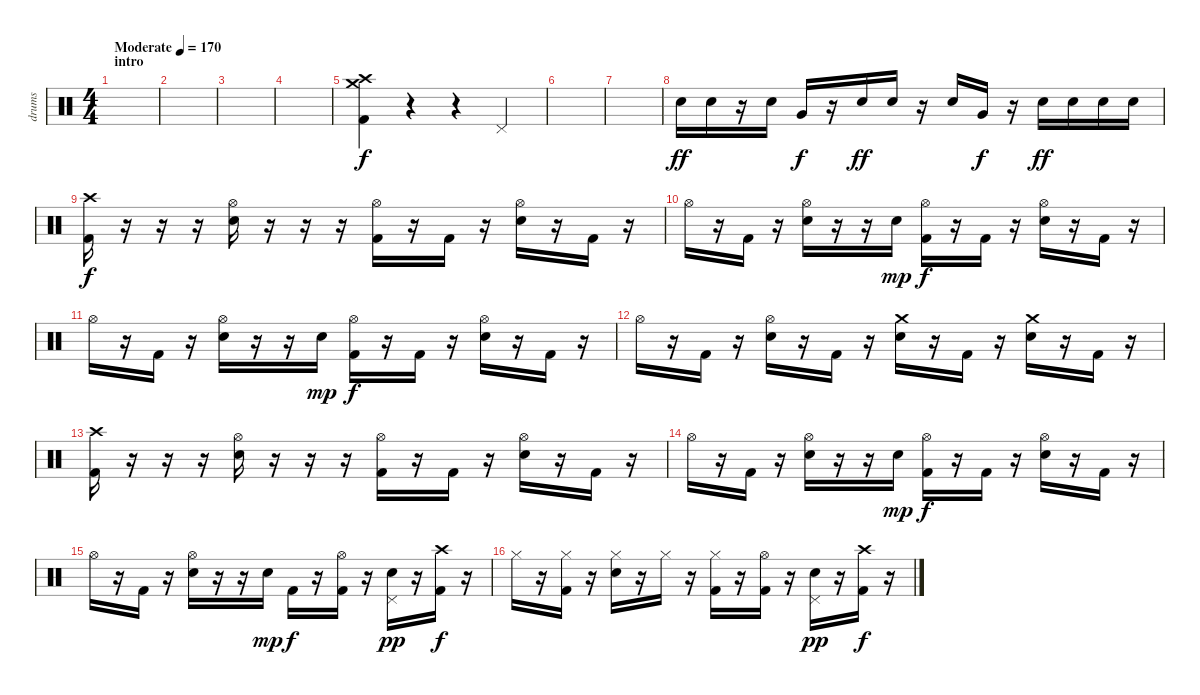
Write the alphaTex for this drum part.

\track ("drums" "drums") {instrument percussion}
\staff {score}
\articulation defaults
\ts (4 4)
\section ("" "intro")
\tempo (170 "Moderate")
\clef neutral
\ks c
|
|
|
|
("Crash high (hit)" "Crash medium (hit)" "Kick (hit) 2").4 r.4 r.4 "Pedal Hi-Hat (hit)".4 |
|
|
"Snare (hit) 2".16{dy ff} "Snare (hit) 2".16 r.16 "Snare (hit) 2".16 "Very Low Tom (hit)".16{dy f} r.16 "Snare (hit) 2".16{dy ff} "Snare (hit) 2".16 r.16 "Snare (hit) 2".16 "Very Low Tom (hit)".16{dy f} r.16 "Snare (hit) 2".16{dy ff} "Snare (hit) 2".16 "Snare (hit) 2".16 "Snare (hit) 2".16 |
("Crash high (hit)" "Kick (hit) 2").16{dy f} r.16 r.16 r.16 ("Hi-Hat (open)" "Snare (hit) 2").16 r.16 r.16 r.16 ("Hi-Hat (open)" "Kick (hit) 2").16 r.16 "Kick (hit) 2".16 r.16 ("Hi-Hat (open)" "Snare (hit) 2").16 r.16 "Kick (hit) 2".16 r.16 |
"Hi-Hat (open)".16 r.16 "Kick (hit) 2".16 r.16 ("Hi-Hat (open)" "Snare (hit) 2").16 r.16 r.16 "Snare (hit) 2".16{dy mp} ("Hi-Hat (open)" "Kick (hit) 2").16{dy f} r.16 "Kick (hit) 2".16 r.16 ("Hi-Hat (open)" "Snare (hit) 2").16 r.16 "Kick (hit) 2".16 r.16 |
"Hi-Hat (open)".16 r.16 "Kick (hit) 2".16 r.16 ("Hi-Hat (open)" "Snare (hit) 2").16 r.16 r.16 "Snare (hit) 2".16{dy mp} ("Hi-Hat (open)" "Kick (hit) 2").16{dy f} r.16 "Kick (hit) 2".16 r.16 ("Hi-Hat (open)" "Snare (hit) 2").16 r.16 "Kick (hit) 2".16 r.16 |
"Hi-Hat (open)".16 r.16 "Kick (hit) 2".16 r.16 ("Hi-Hat (open)" "Snare (hit) 2").16 r.16 "Kick (hit) 2".16 r.16 ("Crash medium (hit)" "Snare (hit) 2").16 r.16 "Kick (hit) 2".16 r.16 ("Crash medium (hit)" "Snare (hit) 2").16 r.16 "Kick (hit) 2".16 r.16 |
("Crash high (hit)" "Kick (hit) 2").16 r.16 r.16 r.16 ("Hi-Hat (open)" "Snare (hit) 2").16 r.16 r.16 r.16 ("Hi-Hat (open)" "Kick (hit) 2").16 r.16 "Kick (hit) 2".16 r.16 ("Hi-Hat (open)" "Snare (hit) 2").16 r.16 "Kick (hit) 2".16 r.16 |
"Hi-Hat (open)".16 r.16 "Kick (hit) 2".16 r.16 ("Hi-Hat (open)" "Snare (hit) 2").16 r.16 r.16 "Snare (hit) 2".16{dy mp} ("Hi-Hat (open)" "Kick (hit) 2").16{dy f} r.16 "Kick (hit) 2".16 r.16 ("Hi-Hat (open)" "Snare (hit) 2").16 r.16 "Kick (hit) 2".16 r.16 |
"Hi-Hat (open)".16 r.16 "Kick (hit) 2".16 r.16 ("Hi-Hat (open)" "Snare (hit) 2").16 r.16 r.16 "Snare (hit) 2".16{dy mp} "Kick (hit) 2".16{dy f} r.16 ("Hi-Hat (open)" "Kick (hit) 2").16 r.16 ("Pedal Hi-Hat (hit)" "Snare (hit) 2").16{dy pp} r.16 ("Crash high (hit)" "Kick (hit) 2").16{dy f} r.16 |
"Hi-Hat (closed)".16 r.16 ("Hi-Hat (closed)" "Kick (hit) 2").16 r.16 ("Hi-Hat (closed)" "Snare (hit) 2").16 r.16 "Hi-Hat (closed)".16 r.16 ("Hi-Hat (closed)" "Kick (hit) 2").16 r.16 ("Hi-Hat (open)" "Kick (hit) 2").16 r.16 ("Pedal Hi-Hat (hit)" "Snare (hit) 2").16{dy pp} r.16 ("Crash high (hit)" "Kick (hit) 2").16{dy f} r.16
